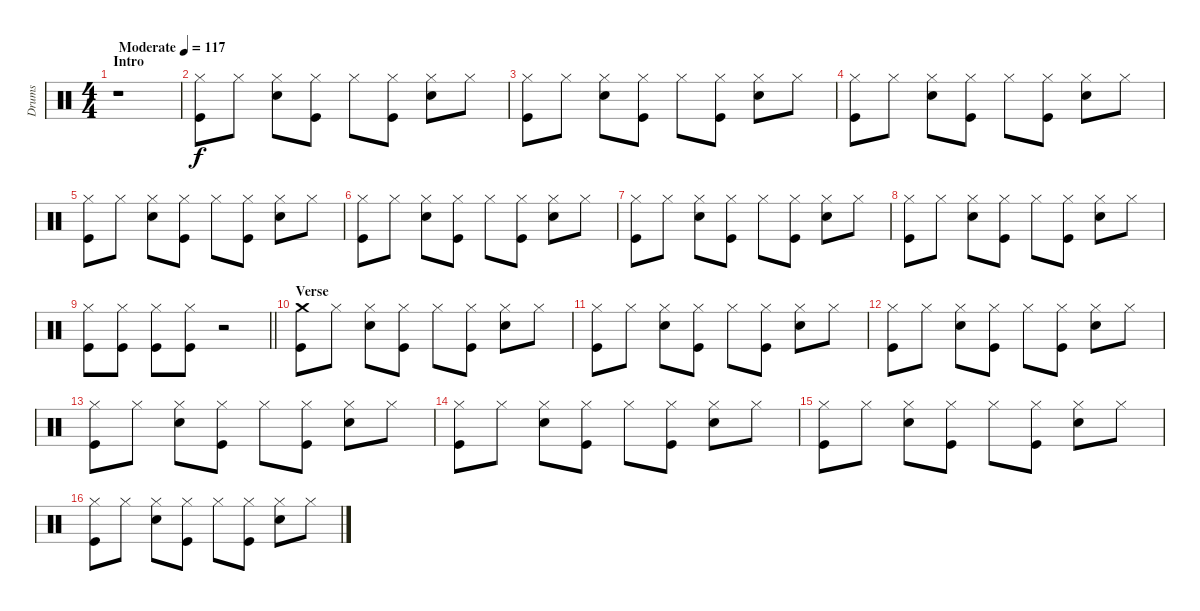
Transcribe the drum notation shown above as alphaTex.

\track ("Drums" "Drums") {instrument percussion}
\staff {score}
\articulation defaults
\ts (4 4)
\section ("" "Intro")
\tempo (117 "Moderate")
\clef neutral
\ks c
r.1{dy f} |
("Hi-Hat (closed)" "Kick (hit)").8 "Hi-Hat (closed)".8 ("Hi-Hat (closed)" "Snare (hit) 2").8 ("Hi-Hat (closed)" "Kick (hit)").8 "Hi-Hat (closed)".8 ("Hi-Hat (closed)" "Kick (hit)").8 ("Hi-Hat (closed)" "Snare (hit) 2").8 "Hi-Hat (closed)".8 |
("Hi-Hat (closed)" "Kick (hit)").8 "Hi-Hat (closed)".8 ("Hi-Hat (closed)" "Snare (hit) 2").8 ("Hi-Hat (closed)" "Kick (hit)").8 "Hi-Hat (closed)".8 ("Hi-Hat (closed)" "Kick (hit)").8 ("Hi-Hat (closed)" "Snare (hit) 2").8 "Hi-Hat (closed)".8 |
("Hi-Hat (closed)" "Kick (hit)").8 "Hi-Hat (closed)".8 ("Hi-Hat (closed)" "Snare (hit) 2").8 ("Hi-Hat (closed)" "Kick (hit)").8 "Hi-Hat (closed)".8 ("Hi-Hat (closed)" "Kick (hit)").8 ("Hi-Hat (closed)" "Snare (hit) 2").8 "Hi-Hat (closed)".8 |
("Hi-Hat (closed)" "Kick (hit)").8 "Hi-Hat (closed)".8 ("Hi-Hat (closed)" "Snare (hit) 2").8 ("Hi-Hat (closed)" "Kick (hit)").8 "Hi-Hat (closed)".8 ("Hi-Hat (closed)" "Kick (hit)").8 ("Hi-Hat (closed)" "Snare (hit) 2").8 "Hi-Hat (closed)".8 |
("Hi-Hat (closed)" "Kick (hit)").8 "Hi-Hat (closed)".8 ("Hi-Hat (closed)" "Snare (hit) 2").8 ("Hi-Hat (closed)" "Kick (hit)").8 "Hi-Hat (closed)".8 ("Hi-Hat (closed)" "Kick (hit)").8 ("Hi-Hat (closed)" "Snare (hit) 2").8 "Hi-Hat (closed)".8 |
("Hi-Hat (closed)" "Kick (hit)").8 "Hi-Hat (closed)".8 ("Hi-Hat (closed)" "Snare (hit) 2").8 ("Hi-Hat (closed)" "Kick (hit)").8 "Hi-Hat (closed)".8 ("Hi-Hat (closed)" "Kick (hit)").8 ("Hi-Hat (closed)" "Snare (hit) 2").8 "Hi-Hat (closed)".8 |
("Hi-Hat (closed)" "Kick (hit)").8 "Hi-Hat (closed)".8 ("Hi-Hat (closed)" "Snare (hit) 2").8 ("Hi-Hat (closed)" "Kick (hit)").8 "Hi-Hat (closed)".8 ("Hi-Hat (closed)" "Kick (hit)").8 ("Hi-Hat (closed)" "Snare (hit) 2").8 "Hi-Hat (closed)".8 |
\barLineRight lightlight
("Hi-Hat (closed)" "Kick (hit)").8 ("Hi-Hat (closed)" "Kick (hit)").8 ("Hi-Hat (closed)" "Kick (hit)").8 ("Hi-Hat (closed)" "Kick (hit)").8 r.2 |
\section ("" "Verse")
("Crash medium (hit)" "Kick (hit)").8 "Hi-Hat (closed)".8 ("Hi-Hat (closed)" "Snare (hit) 2").8 ("Hi-Hat (closed)" "Kick (hit)").8 "Hi-Hat (closed)".8 ("Hi-Hat (closed)" "Kick (hit)").8 ("Hi-Hat (closed)" "Snare (hit) 2").8 "Hi-Hat (closed)".8 |
("Hi-Hat (closed)" "Kick (hit)").8 "Hi-Hat (closed)".8 ("Hi-Hat (closed)" "Snare (hit) 2").8 ("Hi-Hat (closed)" "Kick (hit)").8 "Hi-Hat (closed)".8 ("Hi-Hat (closed)" "Kick (hit)").8 ("Hi-Hat (closed)" "Snare (hit) 2").8 "Hi-Hat (closed)".8 |
("Hi-Hat (closed)" "Kick (hit)").8 "Hi-Hat (closed)".8 ("Hi-Hat (closed)" "Snare (hit) 2").8 ("Hi-Hat (closed)" "Kick (hit)").8 "Hi-Hat (closed)".8 ("Hi-Hat (closed)" "Kick (hit)").8 ("Hi-Hat (closed)" "Snare (hit) 2").8 "Hi-Hat (closed)".8 |
("Hi-Hat (closed)" "Kick (hit)").8 "Hi-Hat (closed)".8 ("Hi-Hat (closed)" "Snare (hit) 2").8 ("Hi-Hat (closed)" "Kick (hit)").8 "Hi-Hat (closed)".8 ("Hi-Hat (closed)" "Kick (hit)").8 ("Hi-Hat (closed)" "Snare (hit) 2").8 "Hi-Hat (closed)".8 |
("Hi-Hat (closed)" "Kick (hit)").8 "Hi-Hat (closed)".8 ("Hi-Hat (closed)" "Snare (hit) 2").8 ("Hi-Hat (closed)" "Kick (hit)").8 "Hi-Hat (closed)".8 ("Hi-Hat (closed)" "Kick (hit)").8 ("Hi-Hat (closed)" "Snare (hit) 2").8 "Hi-Hat (closed)".8 |
("Hi-Hat (closed)" "Kick (hit)").8 "Hi-Hat (closed)".8 ("Hi-Hat (closed)" "Snare (hit) 2").8 ("Hi-Hat (closed)" "Kick (hit)").8 "Hi-Hat (closed)".8 ("Hi-Hat (closed)" "Kick (hit)").8 ("Hi-Hat (closed)" "Snare (hit) 2").8 "Hi-Hat (closed)".8 |
("Hi-Hat (closed)" "Kick (hit)").8 "Hi-Hat (closed)".8 ("Hi-Hat (closed)" "Snare (hit) 2").8 ("Hi-Hat (closed)" "Kick (hit)").8 "Hi-Hat (closed)".8 ("Hi-Hat (closed)" "Kick (hit)").8 ("Hi-Hat (closed)" "Snare (hit) 2").8 "Hi-Hat (closed)".8
